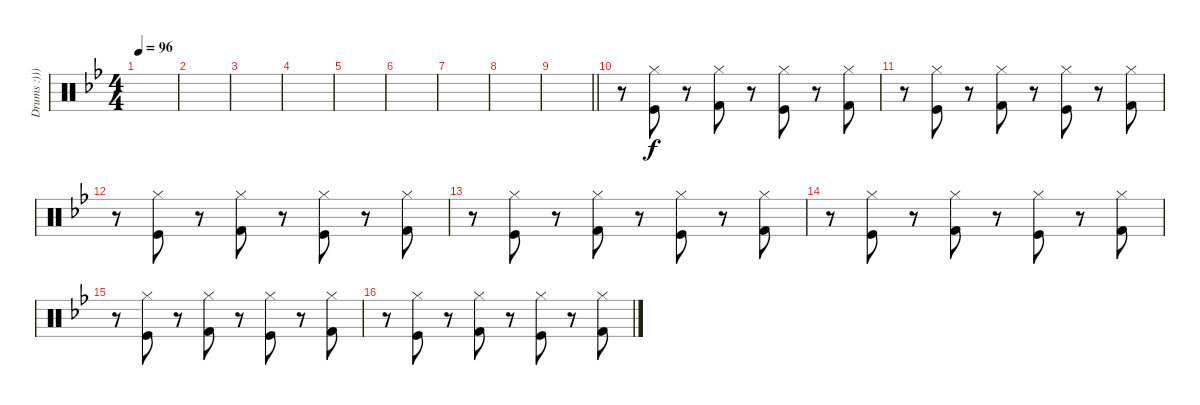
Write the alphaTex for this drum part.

\track ("Drums :)))" "Drums :)))") {instrument percussion}
\staff
\articulation defaults
\ts (4 4)
\tempo 96
\clef neutral
\ks bb
|
|
|
|
|
|
|
|
\barLineRight lightlight
|
r.8 ("Hi-Hat (closed)" "Kick (hit)").8 r.8 ("Hi-Hat (closed)" "Kick (hit) 2").8 r.8 ("Hi-Hat (closed)" "Kick (hit)").8 r.8 ("Hi-Hat (closed)" "Kick (hit) 2").8 |
r.8 ("Hi-Hat (closed)" "Kick (hit)").8 r.8 ("Hi-Hat (closed)" "Kick (hit) 2").8 r.8 ("Hi-Hat (closed)" "Kick (hit)").8 r.8 ("Hi-Hat (closed)" "Kick (hit) 2").8 |
r.8 ("Hi-Hat (closed)" "Kick (hit)").8 r.8 ("Hi-Hat (closed)" "Kick (hit) 2").8 r.8 ("Hi-Hat (closed)" "Kick (hit)").8 r.8 ("Hi-Hat (closed)" "Kick (hit) 2").8 |
r.8 ("Hi-Hat (closed)" "Kick (hit)").8 r.8 ("Hi-Hat (closed)" "Kick (hit) 2").8 r.8 ("Hi-Hat (closed)" "Kick (hit)").8 r.8 ("Hi-Hat (closed)" "Kick (hit) 2").8 |
r.8 ("Hi-Hat (closed)" "Kick (hit)").8 r.8 ("Hi-Hat (closed)" "Kick (hit) 2").8 r.8 ("Hi-Hat (closed)" "Kick (hit)").8 r.8 ("Hi-Hat (closed)" "Kick (hit) 2").8 |
r.8 ("Hi-Hat (closed)" "Kick (hit)").8 r.8 ("Hi-Hat (closed)" "Kick (hit) 2").8 r.8 ("Hi-Hat (closed)" "Kick (hit)").8 r.8 ("Hi-Hat (closed)" "Kick (hit) 2").8 |
r.8 ("Hi-Hat (closed)" "Kick (hit)").8 r.8 ("Hi-Hat (closed)" "Kick (hit) 2").8 r.8 ("Hi-Hat (closed)" "Kick (hit)").8 r.8 ("Hi-Hat (closed)" "Kick (hit) 2").8
